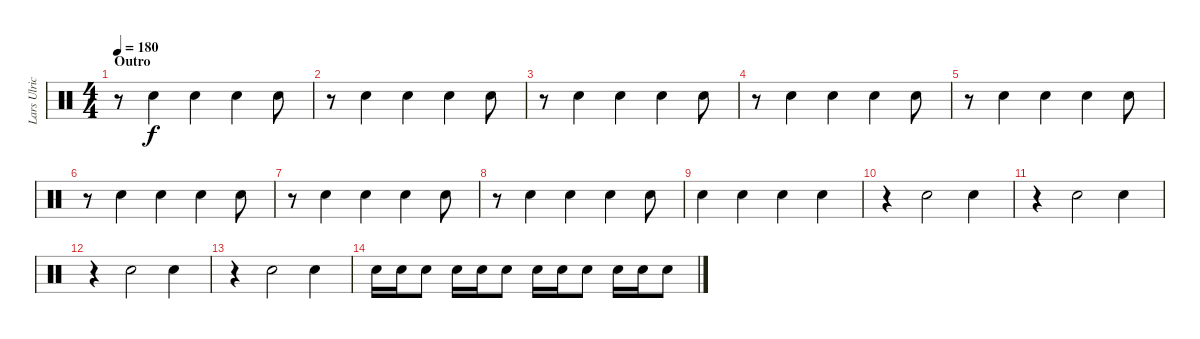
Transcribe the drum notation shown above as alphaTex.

\track ("Lars Ulrich" "Lars Ulric") {instrument percussion}
\staff {score}
\articulation defaults
\ts (4 4)
\section ("" "Outro")
\tempo 180
\clef neutral
\ks c
r.8{dy f} "Snare (hit) 2".4 "Snare (hit) 2".4 "Snare (hit) 2".4 "Snare (hit) 2".8 |
r.8 "Snare (hit) 2".4 "Snare (hit) 2".4 "Snare (hit) 2".4 "Snare (hit) 2".8 |
r.8 "Snare (hit) 2".4 "Snare (hit) 2".4 "Snare (hit) 2".4 "Snare (hit) 2".8 |
r.8 "Snare (hit) 2".4 "Snare (hit) 2".4 "Snare (hit) 2".4 "Snare (hit) 2".8 |
r.8 "Snare (hit) 2".4 "Snare (hit) 2".4 "Snare (hit) 2".4 "Snare (hit) 2".8 |
r.8 "Snare (hit) 2".4 "Snare (hit) 2".4 "Snare (hit) 2".4 "Snare (hit) 2".8 |
r.8 "Snare (hit) 2".4 "Snare (hit) 2".4 "Snare (hit) 2".4 "Snare (hit) 2".8 |
r.8 "Snare (hit) 2".4 "Snare (hit) 2".4 "Snare (hit) 2".4 "Snare (hit) 2".8 |
"Snare (hit) 2".4 "Snare (hit) 2".4 "Snare (hit) 2".4 "Snare (hit) 2".4 |
r.4 "Snare (hit) 2".2 "Snare (hit) 2".4 |
r.4 "Snare (hit) 2".2 "Snare (hit) 2".4 |
r.4 "Snare (hit) 2".2 "Snare (hit) 2".4 |
r.4 "Snare (hit) 2".2 "Snare (hit) 2".4 |
"Snare (hit) 2".16 "Snare (hit) 2".16 "Snare (hit) 2".8 "Snare (hit) 2".16 "Snare (hit) 2".16 "Snare (hit) 2".8 "Snare (hit) 2".16 "Snare (hit) 2".16 "Snare (hit) 2".8 "Snare (hit) 2".16 "Snare (hit) 2".16 "Snare (hit) 2".8
